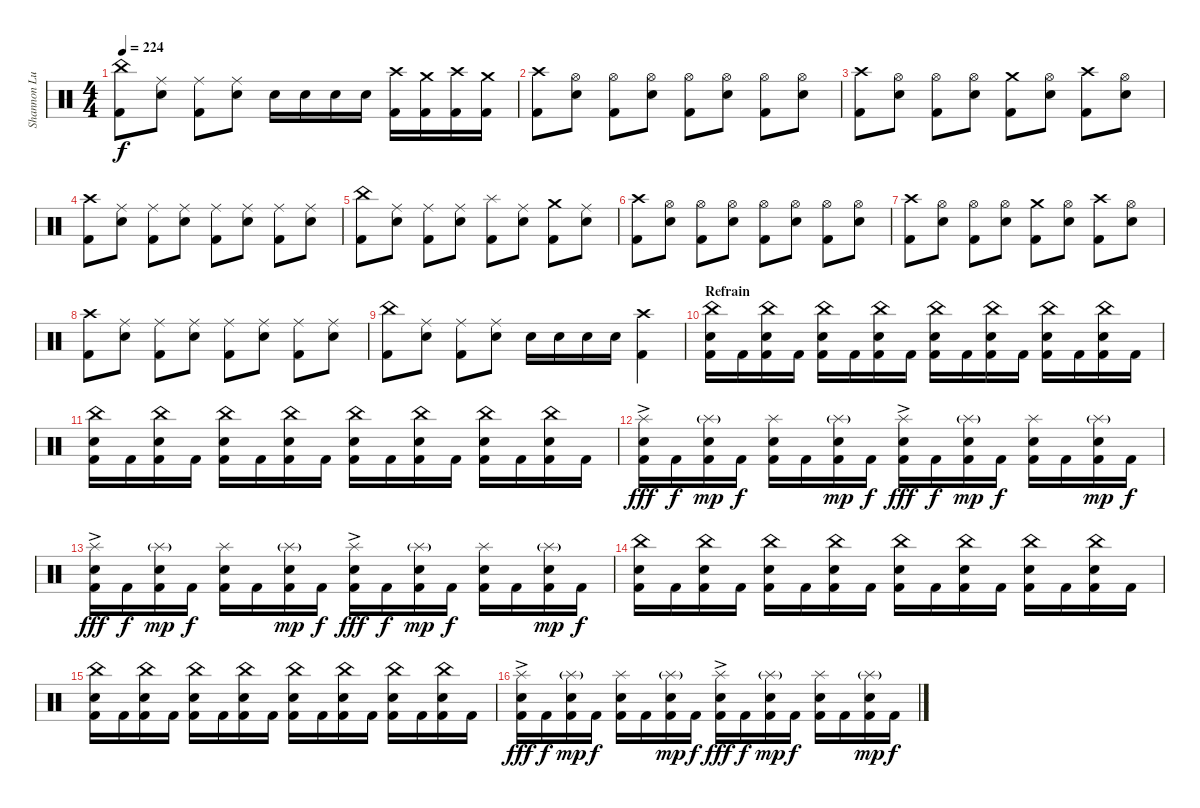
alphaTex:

\track ("Shannon Lucas (Drums)" "Shannon Lu") {instrument percussion}
\staff {score}
\articulation defaults
\ts (4 4)
\tempo 224
\clef neutral
\ks c
("China (hit)" "Kick (hit) 2").8{dy f} ("Ride (middle)" "Snare (hit) 2").8 ("Ride (middle)" "Kick (hit) 2").8 ("Ride (middle)" "Snare (hit) 2").8 "Snare (hit) 2".16 "Snare (hit) 2".16 "Snare (hit) 2".16 "Snare (hit) 2".16 ("Crash high (hit)" "Kick (hit) 2").16 ("Crash medium (hit)" "Kick (hit) 2").16 ("Crash high (hit)" "Kick (hit) 2").16 ("Crash medium (hit)" "Kick (hit) 2").16 |
("Crash high (hit)" "Kick (hit) 2").8{balance 8} ("Hi-Hat (open)" "Snare (hit) 2").8 ("Hi-Hat (open)" "Kick (hit) 2").8 ("Hi-Hat (open)" "Snare (hit) 2").8 ("Hi-Hat (open)" "Kick (hit) 2").8 ("Hi-Hat (open)" "Snare (hit) 2").8 ("Hi-Hat (open)" "Kick (hit) 2").8 ("Hi-Hat (open)" "Snare (hit) 2").8 |
("Crash high (hit)" "Kick (hit) 2").8 ("Hi-Hat (open)" "Snare (hit) 2").8 ("Hi-Hat (open)" "Kick (hit) 2").8 ("Hi-Hat (open)" "Snare (hit) 2").8 ("Crash medium (hit)" "Kick (hit) 2").8 ("Hi-Hat (open)" "Snare (hit) 2").8 ("Crash high (hit)" "Kick (hit) 2").8 ("Hi-Hat (open)" "Snare (hit) 2").8 |
("Crash high (hit)" "Kick (hit) 2").8 ("Ride (middle)" "Snare (hit) 2").8 ("Ride (middle)" "Kick (hit) 2").8 ("Ride (middle)" "Snare (hit) 2").8 ("Ride (middle)" "Kick (hit) 2").8 ("Ride (middle)" "Snare (hit) 2").8 ("Ride (middle)" "Kick (hit) 2").8 ("Ride (middle)" "Snare (hit) 2").8 |
("China (hit)" "Kick (hit) 2").8 ("Ride (middle)" "Snare (hit) 2").8 ("Ride (middle)" "Kick (hit) 2").8 ("Ride (middle)" "Snare (hit) 2").8 ("Splash (hit)" "Kick (hit) 2").8 ("Ride (middle)" "Snare (hit) 2").8 ("Crash medium (hit)" "Kick (hit) 2").8 ("Ride (middle)" "Snare (hit) 2").8 |
("Crash high (hit)" "Kick (hit) 2").8{balance 8} ("Hi-Hat (open)" "Snare (hit) 2").8 ("Hi-Hat (open)" "Kick (hit) 2").8 ("Hi-Hat (open)" "Snare (hit) 2").8 ("Hi-Hat (open)" "Kick (hit) 2").8 ("Hi-Hat (open)" "Snare (hit) 2").8 ("Hi-Hat (open)" "Kick (hit) 2").8 ("Hi-Hat (open)" "Snare (hit) 2").8 |
("Crash high (hit)" "Kick (hit) 2").8 ("Hi-Hat (open)" "Snare (hit) 2").8 ("Hi-Hat (open)" "Kick (hit) 2").8 ("Hi-Hat (open)" "Snare (hit) 2").8 ("Crash medium (hit)" "Kick (hit) 2").8 ("Hi-Hat (open)" "Snare (hit) 2").8 ("Crash high (hit)" "Kick (hit) 2").8 ("Hi-Hat (open)" "Snare (hit) 2").8 |
("Crash high (hit)" "Kick (hit) 2").8 ("Ride (middle)" "Snare (hit) 2").8 ("Ride (middle)" "Kick (hit) 2").8 ("Ride (middle)" "Snare (hit) 2").8 ("Ride (middle)" "Kick (hit) 2").8 ("Ride (middle)" "Snare (hit) 2").8 ("Ride (middle)" "Kick (hit) 2").8 ("Ride (middle)" "Snare (hit) 2").8 |
("China (hit)" "Kick (hit) 2").8 ("Ride (middle)" "Snare (hit) 2").8 ("Ride (middle)" "Kick (hit) 2").8 ("Ride (middle)" "Snare (hit) 2").8 "Snare (hit) 2".16 "Snare (hit) 2".16 "Snare (hit) 2".16 "Snare (hit) 2".16 ("Crash high (hit)" "Kick (hit) 2").4 |
\section ("" "Refrain")
("China (hit)" "Snare (hit) 2" "Kick (hit) 2").16{balance 4} "Kick (hit) 2".16 ("China (hit)" "Snare (hit) 2" "Kick (hit) 2").16 "Kick (hit) 2".16 ("China (hit)" "Snare (hit) 2" "Kick (hit) 2").16 "Kick (hit) 2".16 ("China (hit)" "Snare (hit) 2" "Kick (hit) 2").16 "Kick (hit) 2".16 ("China (hit)" "Snare (hit) 2" "Kick (hit) 2").16 "Kick (hit) 2".16 ("China (hit)" "Snare (hit) 2" "Kick (hit) 2").16 "Kick (hit) 2".16 ("China (hit)" "Snare (hit) 2" "Kick (hit) 2").16 "Kick (hit) 2".16 ("China (hit)" "Snare (hit) 2" "Kick (hit) 2").16 "Kick (hit) 2".16 |
("China (hit)" "Snare (hit) 2" "Kick (hit) 2").16 "Kick (hit) 2".16 ("China (hit)" "Snare (hit) 2" "Kick (hit) 2").16 "Kick (hit) 2".16 ("China (hit)" "Snare (hit) 2" "Kick (hit) 2").16 "Kick (hit) 2".16 ("China (hit)" "Snare (hit) 2" "Kick (hit) 2").16 "Kick (hit) 2".16 ("China (hit)" "Snare (hit) 2" "Kick (hit) 2").16 "Kick (hit) 2".16 ("China (hit)" "Snare (hit) 2" "Kick (hit) 2").16 "Kick (hit) 2".16 ("China (hit)" "Snare (hit) 2" "Kick (hit) 2").16 "Kick (hit) 2".16 ("China (hit)" "Snare (hit) 2" "Kick (hit) 2").16 "Kick (hit) 2".16 |
("Splash (hit)"{ac} "Snare (hit) 2" "Kick (hit) 2").16{dy fff balance 12} "Kick (hit) 2".16{dy f} ("Splash (hit)"{g} "Snare (hit) 2" "Kick (hit) 2").16{dy mp} "Kick (hit) 2".16{dy f} ("Splash (hit)" "Snare (hit) 2" "Kick (hit) 2").16 "Kick (hit) 2".16 ("Splash (hit)"{g} "Snare (hit) 2" "Kick (hit) 2").16{dy mp} "Kick (hit) 2".16{dy f} ("Splash (hit)"{ac} "Snare (hit) 2" "Kick (hit) 2").16{dy fff} "Kick (hit) 2".16{dy f} ("Splash (hit)"{g} "Snare (hit) 2" "Kick (hit) 2").16{dy mp} "Kick (hit) 2".16{dy f} ("Splash (hit)" "Snare (hit) 2" "Kick (hit) 2").16 "Kick (hit) 2".16 ("Splash (hit)"{g} "Snare (hit) 2" "Kick (hit) 2").16{dy mp} "Kick (hit) 2".16{dy f} |
("Splash (hit)"{ac} "Snare (hit) 2" "Kick (hit) 2").16{dy fff} "Kick (hit) 2".16{dy f} ("Splash (hit)"{g} "Snare (hit) 2" "Kick (hit) 2").16{dy mp} "Kick (hit) 2".16{dy f} ("Splash (hit)" "Snare (hit) 2" "Kick (hit) 2").16 "Kick (hit) 2".16 ("Splash (hit)"{g} "Snare (hit) 2" "Kick (hit) 2").16{dy mp} "Kick (hit) 2".16{dy f} ("Splash (hit)"{ac} "Snare (hit) 2" "Kick (hit) 2").16{dy fff} "Kick (hit) 2".16{dy f} ("Splash (hit)"{g} "Snare (hit) 2" "Kick (hit) 2").16{dy mp} "Kick (hit) 2".16{dy f} ("Splash (hit)" "Snare (hit) 2" "Kick (hit) 2").16 "Kick (hit) 2".16 ("Splash (hit)"{g} "Snare (hit) 2" "Kick (hit) 2").16{dy mp} "Kick (hit) 2".16{dy f} |
("China (hit)" "Snare (hit) 2" "Kick (hit) 2").16{balance 4} "Kick (hit) 2".16 ("China (hit)" "Snare (hit) 2" "Kick (hit) 2").16 "Kick (hit) 2".16 ("China (hit)" "Snare (hit) 2" "Kick (hit) 2").16 "Kick (hit) 2".16 ("China (hit)" "Snare (hit) 2" "Kick (hit) 2").16 "Kick (hit) 2".16 ("China (hit)" "Snare (hit) 2" "Kick (hit) 2").16 "Kick (hit) 2".16 ("China (hit)" "Snare (hit) 2" "Kick (hit) 2").16 "Kick (hit) 2".16 ("China (hit)" "Snare (hit) 2" "Kick (hit) 2").16 "Kick (hit) 2".16 ("China (hit)" "Snare (hit) 2" "Kick (hit) 2").16 "Kick (hit) 2".16 |
("China (hit)" "Snare (hit) 2" "Kick (hit) 2").16 "Kick (hit) 2".16 ("China (hit)" "Snare (hit) 2" "Kick (hit) 2").16 "Kick (hit) 2".16 ("China (hit)" "Snare (hit) 2" "Kick (hit) 2").16 "Kick (hit) 2".16 ("China (hit)" "Snare (hit) 2" "Kick (hit) 2").16 "Kick (hit) 2".16 ("China (hit)" "Snare (hit) 2" "Kick (hit) 2").16 "Kick (hit) 2".16 ("China (hit)" "Snare (hit) 2" "Kick (hit) 2").16 "Kick (hit) 2".16 ("China (hit)" "Snare (hit) 2" "Kick (hit) 2").16 "Kick (hit) 2".16 ("China (hit)" "Snare (hit) 2" "Kick (hit) 2").16 "Kick (hit) 2".16 |
("Splash (hit)"{ac} "Snare (hit) 2" "Kick (hit) 2").16{dy fff balance 12} "Kick (hit) 2".16{dy f} ("Splash (hit)"{g} "Snare (hit) 2" "Kick (hit) 2").16{dy mp} "Kick (hit) 2".16{dy f} ("Splash (hit)" "Snare (hit) 2" "Kick (hit) 2").16 "Kick (hit) 2".16 ("Splash (hit)"{g} "Snare (hit) 2" "Kick (hit) 2").16{dy mp} "Kick (hit) 2".16{dy f} ("Splash (hit)"{ac} "Snare (hit) 2" "Kick (hit) 2").16{dy fff} "Kick (hit) 2".16{dy f} ("Splash (hit)"{g} "Snare (hit) 2" "Kick (hit) 2").16{dy mp} "Kick (hit) 2".16{dy f} ("Splash (hit)" "Snare (hit) 2" "Kick (hit) 2").16 "Kick (hit) 2".16 ("Splash (hit)"{g} "Snare (hit) 2" "Kick (hit) 2").16{dy mp} "Kick (hit) 2".16{dy f}
